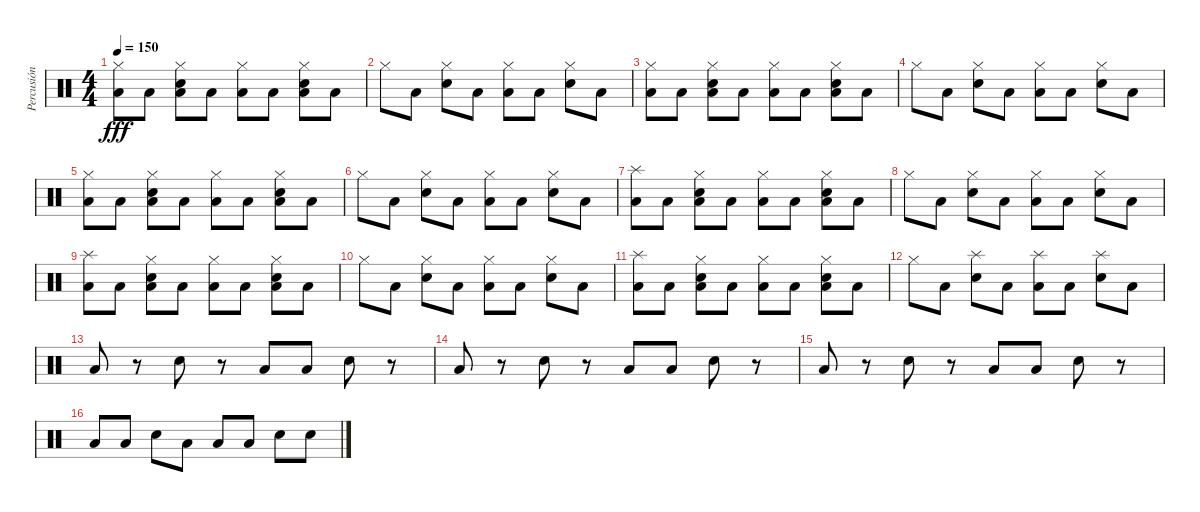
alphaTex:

\track ("Percusión" "Percusión") {instrument percussion}
\staff {score}
\articulation defaults
\ts (4 4)
\tempo 150
\clef neutral
\ks c
("Hi-Hat (closed)" "Low Tom (hit)").8{dy fff} "Low Tom (hit)".8 ("Low Tom (hit)" "Hi-Hat (closed)" "Snare (hit) 2").8 "Low Tom (hit)".8 ("Hi-Hat (closed)" "Low Tom (hit)").8 "Low Tom (hit)".8 ("Low Tom (hit)" "Hi-Hat (closed)" "Snare (hit) 2").8 "Low Tom (hit)".8 |
"Hi-Hat (closed)".8 "Low Tom (hit)".8 ("Hi-Hat (closed)" "Snare (hit) 2").8 "Low Tom (hit)".8 ("Hi-Hat (closed)" "Low Tom (hit)").8 "Low Tom (hit)".8 ("Hi-Hat (closed)" "Snare (hit) 2").8 "Low Tom (hit)".8 |
("Hi-Hat (closed)" "Low Tom (hit)").8 "Low Tom (hit)".8 ("Low Tom (hit)" "Hi-Hat (closed)" "Snare (hit) 2").8 "Low Tom (hit)".8 ("Hi-Hat (closed)" "Low Tom (hit)").8 "Low Tom (hit)".8 ("Low Tom (hit)" "Hi-Hat (closed)" "Snare (hit) 2").8 "Low Tom (hit)".8 |
"Hi-Hat (closed)".8 "Low Tom (hit)".8 ("Hi-Hat (closed)" "Snare (hit) 2").8 "Low Tom (hit)".8 ("Hi-Hat (closed)" "Low Tom (hit)").8 "Low Tom (hit)".8 ("Hi-Hat (closed)" "Snare (hit) 2").8 "Low Tom (hit)".8 |
("Hi-Hat (closed)" "Low Tom (hit)").8 "Low Tom (hit)".8 ("Low Tom (hit)" "Hi-Hat (closed)" "Snare (hit) 2").8 "Low Tom (hit)".8 ("Hi-Hat (closed)" "Low Tom (hit)").8 "Low Tom (hit)".8 ("Low Tom (hit)" "Hi-Hat (closed)" "Snare (hit) 2").8 "Low Tom (hit)".8 |
"Hi-Hat (closed)".8 "Low Tom (hit)".8 ("Hi-Hat (closed)" "Snare (hit) 2").8 "Low Tom (hit)".8 ("Hi-Hat (closed)" "Low Tom (hit)").8 "Low Tom (hit)".8 ("Hi-Hat (closed)" "Snare (hit) 2").8 "Low Tom (hit)".8 |
("Splash (hit)" "Low Tom (hit)").8 "Low Tom (hit)".8 ("Low Tom (hit)" "Hi-Hat (closed)" "Snare (hit) 2").8 "Low Tom (hit)".8 ("Hi-Hat (closed)" "Low Tom (hit)").8 "Low Tom (hit)".8 ("Low Tom (hit)" "Hi-Hat (closed)" "Snare (hit) 2").8 "Low Tom (hit)".8 |
"Hi-Hat (closed)".8 "Low Tom (hit)".8 ("Hi-Hat (closed)" "Snare (hit) 2").8 "Low Tom (hit)".8 ("Hi-Hat (closed)" "Low Tom (hit)").8 "Low Tom (hit)".8 ("Hi-Hat (closed)" "Snare (hit) 2").8 "Low Tom (hit)".8 |
("Splash (hit)" "Low Tom (hit)").8 "Low Tom (hit)".8 ("Low Tom (hit)" "Hi-Hat (closed)" "Snare (hit) 2").8 "Low Tom (hit)".8 ("Hi-Hat (closed)" "Low Tom (hit)").8 "Low Tom (hit)".8 ("Low Tom (hit)" "Hi-Hat (closed)" "Snare (hit) 2").8 "Low Tom (hit)".8 |
"Hi-Hat (closed)".8 "Low Tom (hit)".8 ("Hi-Hat (closed)" "Snare (hit) 2").8 "Low Tom (hit)".8 ("Hi-Hat (closed)" "Low Tom (hit)").8 "Low Tom (hit)".8 ("Hi-Hat (closed)" "Snare (hit) 2").8 "Low Tom (hit)".8 |
("Splash (hit)" "Low Tom (hit)").8 "Low Tom (hit)".8 ("Low Tom (hit)" "Hi-Hat (closed)" "Snare (hit) 2").8 "Low Tom (hit)".8 ("Hi-Hat (closed)" "Low Tom (hit)").8 "Low Tom (hit)".8 ("Low Tom (hit)" "Hi-Hat (closed)" "Snare (hit) 2").8 "Low Tom (hit)".8 |
"Hi-Hat (closed)".8 "Low Tom (hit)".8 ("Splash (hit)" "Snare (hit) 2").8 "Low Tom (hit)".8 ("Splash (hit)" "Low Tom (hit)").8 "Low Tom (hit)".8 ("Splash (hit)" "Snare (hit) 2").8 "Low Tom (hit)".8 |
"Low Tom (hit)".8 r.8 "Snare (hit) 2".8 r.8 "Low Tom (hit)".8 "Low Tom (hit)".8 "Snare (hit) 2".8 r.8 |
"Low Tom (hit)".8 r.8 "Snare (hit) 2".8 r.8 "Low Tom (hit)".8 "Low Tom (hit)".8 "Snare (hit) 2".8 r.8 |
"Low Tom (hit)".8 r.8 "Snare (hit) 2".8 r.8 "Low Tom (hit)".8 "Low Tom (hit)".8 "Snare (hit) 2".8 r.8 |
"Low Tom (hit)".8 "Low Tom (hit)".8 "Snare (hit) 2".8 "Low Tom (hit)".8 "Low Tom (hit)".8 "Low Tom (hit)".8 "Snare (hit) 2".8 "Snare (hit) 2".8
